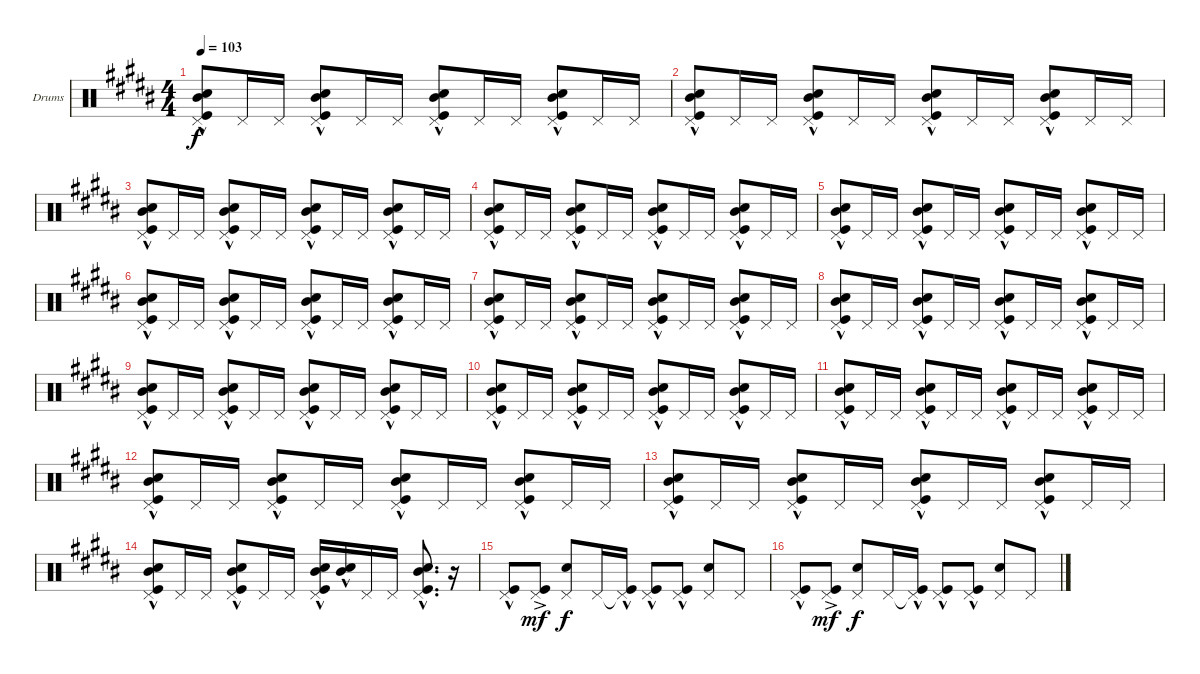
\defaultSystemsLayout 4
\bracketExtendMode groupsimilarinstruments
\firstSystemTrackNameOrientation horizontal
\otherSystemsTrackNameOrientation horizontal
\track ("Drumkit" "Drums") {instrument percussion}
\staff {score}
\articulation defaults
\ts (4 4)
\tempo 103
\clef neutral
\ks b
("Snare (hit) 2" "Mid Tom (hit)"{hac} "Pedal Hi-Hat (hit)" "Kick (hit)"{hac}).8{dy f} "Pedal Hi-Hat (hit)".16 "Pedal Hi-Hat (hit)".16 ("Snare (hit) 2" "Mid Tom (hit)"{hac} "Pedal Hi-Hat (hit)" "Kick (hit)"{hac}).8 "Pedal Hi-Hat (hit)".16 "Pedal Hi-Hat (hit)".16 ("Snare (hit) 2" "Mid Tom (hit)"{hac} "Pedal Hi-Hat (hit)" "Kick (hit)"{hac}).8 "Pedal Hi-Hat (hit)".16 "Pedal Hi-Hat (hit)".16 ("Snare (hit) 2" "Mid Tom (hit)"{hac} "Pedal Hi-Hat (hit)" "Kick (hit)"{hac}).8 "Pedal Hi-Hat (hit)".16 "Pedal Hi-Hat (hit)".16 |
("Snare (hit) 2" "Mid Tom (hit)"{hac} "Pedal Hi-Hat (hit)" "Kick (hit)"{hac}).8 "Pedal Hi-Hat (hit)".16 "Pedal Hi-Hat (hit)".16 ("Snare (hit) 2" "Mid Tom (hit)"{hac} "Pedal Hi-Hat (hit)" "Kick (hit)"{hac}).8 "Pedal Hi-Hat (hit)".16 "Pedal Hi-Hat (hit)".16 ("Snare (hit) 2" "Mid Tom (hit)"{hac} "Pedal Hi-Hat (hit)" "Kick (hit)"{hac}).8 "Pedal Hi-Hat (hit)".16 "Pedal Hi-Hat (hit)".16 ("Snare (hit) 2" "Mid Tom (hit)"{hac} "Pedal Hi-Hat (hit)" "Kick (hit)"{hac}).8 "Pedal Hi-Hat (hit)".16 "Pedal Hi-Hat (hit)".16 |
("Snare (hit) 2" "Mid Tom (hit)"{hac} "Pedal Hi-Hat (hit)" "Kick (hit)"{hac}).8 "Pedal Hi-Hat (hit)".16 "Pedal Hi-Hat (hit)".16 ("Snare (hit) 2" "Mid Tom (hit)"{hac} "Pedal Hi-Hat (hit)" "Kick (hit)"{hac}).8 "Pedal Hi-Hat (hit)".16 "Pedal Hi-Hat (hit)".16 ("Snare (hit) 2" "Mid Tom (hit)"{hac} "Pedal Hi-Hat (hit)" "Kick (hit)"{hac}).8 "Pedal Hi-Hat (hit)".16 "Pedal Hi-Hat (hit)".16 ("Snare (hit) 2" "Mid Tom (hit)"{hac} "Pedal Hi-Hat (hit)" "Kick (hit)"{hac}).8 "Pedal Hi-Hat (hit)".16 "Pedal Hi-Hat (hit)".16 |
("Snare (hit) 2" "Mid Tom (hit)"{hac} "Pedal Hi-Hat (hit)" "Kick (hit)"{hac}).8 "Pedal Hi-Hat (hit)".16 "Pedal Hi-Hat (hit)".16 ("Snare (hit) 2" "Mid Tom (hit)"{hac} "Pedal Hi-Hat (hit)" "Kick (hit)"{hac}).8 "Pedal Hi-Hat (hit)".16 "Pedal Hi-Hat (hit)".16 ("Snare (hit) 2" "Mid Tom (hit)"{hac} "Pedal Hi-Hat (hit)" "Kick (hit)"{hac}).8 "Pedal Hi-Hat (hit)".16 "Pedal Hi-Hat (hit)".16 ("Snare (hit) 2" "Mid Tom (hit)"{hac} "Pedal Hi-Hat (hit)" "Kick (hit)"{hac}).8 "Pedal Hi-Hat (hit)".16 "Pedal Hi-Hat (hit)".16 |
("Snare (hit) 2" "Mid Tom (hit)"{hac} "Pedal Hi-Hat (hit)" "Kick (hit)"{hac}).8 "Pedal Hi-Hat (hit)".16 "Pedal Hi-Hat (hit)".16 ("Snare (hit) 2" "Mid Tom (hit)"{hac} "Pedal Hi-Hat (hit)" "Kick (hit)"{hac}).8 "Pedal Hi-Hat (hit)".16 "Pedal Hi-Hat (hit)".16 ("Snare (hit) 2" "Mid Tom (hit)"{hac} "Pedal Hi-Hat (hit)" "Kick (hit)"{hac}).8 "Pedal Hi-Hat (hit)".16 "Pedal Hi-Hat (hit)".16 ("Snare (hit) 2" "Mid Tom (hit)"{hac} "Pedal Hi-Hat (hit)" "Kick (hit)"{hac}).8 "Pedal Hi-Hat (hit)".16 "Pedal Hi-Hat (hit)".16 |
("Snare (hit) 2" "Mid Tom (hit)"{hac} "Pedal Hi-Hat (hit)" "Kick (hit)"{hac}).8 "Pedal Hi-Hat (hit)".16 "Pedal Hi-Hat (hit)".16 ("Snare (hit) 2" "Mid Tom (hit)"{hac} "Pedal Hi-Hat (hit)" "Kick (hit)"{hac}).8 "Pedal Hi-Hat (hit)".16 "Pedal Hi-Hat (hit)".16 ("Snare (hit) 2" "Mid Tom (hit)"{hac} "Pedal Hi-Hat (hit)" "Kick (hit)"{hac}).8 "Pedal Hi-Hat (hit)".16 "Pedal Hi-Hat (hit)".16 ("Snare (hit) 2" "Mid Tom (hit)"{hac} "Pedal Hi-Hat (hit)" "Kick (hit)"{hac}).8 "Pedal Hi-Hat (hit)".16 "Pedal Hi-Hat (hit)".16 |
("Snare (hit) 2" "Mid Tom (hit)"{hac} "Pedal Hi-Hat (hit)" "Kick (hit)"{hac}).8 "Pedal Hi-Hat (hit)".16 "Pedal Hi-Hat (hit)".16 ("Snare (hit) 2" "Mid Tom (hit)"{hac} "Pedal Hi-Hat (hit)" "Kick (hit)"{hac}).8 "Pedal Hi-Hat (hit)".16 "Pedal Hi-Hat (hit)".16 ("Snare (hit) 2" "Mid Tom (hit)"{hac} "Pedal Hi-Hat (hit)" "Kick (hit)"{hac}).8 "Pedal Hi-Hat (hit)".16 "Pedal Hi-Hat (hit)".16 ("Snare (hit) 2" "Mid Tom (hit)"{hac} "Pedal Hi-Hat (hit)" "Kick (hit)"{hac}).8 "Pedal Hi-Hat (hit)".16 "Pedal Hi-Hat (hit)".16 |
("Snare (hit) 2" "Mid Tom (hit)"{hac} "Pedal Hi-Hat (hit)" "Kick (hit)"{hac}).8 "Pedal Hi-Hat (hit)".16 "Pedal Hi-Hat (hit)".16 ("Snare (hit) 2" "Mid Tom (hit)"{hac} "Pedal Hi-Hat (hit)" "Kick (hit)"{hac}).8 "Pedal Hi-Hat (hit)".16 "Pedal Hi-Hat (hit)".16 ("Snare (hit) 2" "Mid Tom (hit)"{hac} "Pedal Hi-Hat (hit)" "Kick (hit)"{hac}).8 "Pedal Hi-Hat (hit)".16 "Pedal Hi-Hat (hit)".16 ("Snare (hit) 2" "Mid Tom (hit)"{hac} "Pedal Hi-Hat (hit)" "Kick (hit)"{hac}).8 "Pedal Hi-Hat (hit)".16 "Pedal Hi-Hat (hit)".16 |
("Snare (hit) 2" "Mid Tom (hit)"{hac} "Pedal Hi-Hat (hit)" "Kick (hit)"{hac}).8 "Pedal Hi-Hat (hit)".16 "Pedal Hi-Hat (hit)".16 ("Snare (hit) 2" "Mid Tom (hit)"{hac} "Pedal Hi-Hat (hit)" "Kick (hit)"{hac}).8 "Pedal Hi-Hat (hit)".16 "Pedal Hi-Hat (hit)".16 ("Snare (hit) 2" "Mid Tom (hit)"{hac} "Pedal Hi-Hat (hit)" "Kick (hit)"{hac}).8 "Pedal Hi-Hat (hit)".16 "Pedal Hi-Hat (hit)".16 ("Snare (hit) 2" "Mid Tom (hit)"{hac} "Pedal Hi-Hat (hit)" "Kick (hit)"{hac}).8 "Pedal Hi-Hat (hit)".16 "Pedal Hi-Hat (hit)".16 |
("Snare (hit) 2" "Mid Tom (hit)"{hac} "Pedal Hi-Hat (hit)" "Kick (hit)"{hac}).8 "Pedal Hi-Hat (hit)".16 "Pedal Hi-Hat (hit)".16 ("Snare (hit) 2" "Mid Tom (hit)"{hac} "Pedal Hi-Hat (hit)" "Kick (hit)"{hac}).8 "Pedal Hi-Hat (hit)".16 "Pedal Hi-Hat (hit)".16 ("Snare (hit) 2" "Mid Tom (hit)"{hac} "Pedal Hi-Hat (hit)" "Kick (hit)"{hac}).8 "Pedal Hi-Hat (hit)".16 "Pedal Hi-Hat (hit)".16 ("Snare (hit) 2" "Mid Tom (hit)"{hac} "Pedal Hi-Hat (hit)" "Kick (hit)"{hac}).8 "Pedal Hi-Hat (hit)".16 "Pedal Hi-Hat (hit)".16 |
("Snare (hit) 2" "Mid Tom (hit)"{hac} "Pedal Hi-Hat (hit)" "Kick (hit)"{hac}).8 "Pedal Hi-Hat (hit)".16 "Pedal Hi-Hat (hit)".16 ("Snare (hit) 2" "Mid Tom (hit)"{hac} "Pedal Hi-Hat (hit)" "Kick (hit)"{hac}).8 "Pedal Hi-Hat (hit)".16 "Pedal Hi-Hat (hit)".16 ("Snare (hit) 2" "Mid Tom (hit)"{hac} "Pedal Hi-Hat (hit)" "Kick (hit)"{hac}).8 "Pedal Hi-Hat (hit)".16 "Pedal Hi-Hat (hit)".16 ("Snare (hit) 2" "Mid Tom (hit)"{hac} "Pedal Hi-Hat (hit)" "Kick (hit)"{hac}).8 "Pedal Hi-Hat (hit)".16 "Pedal Hi-Hat (hit)".16 |
("Snare (hit) 2" "Mid Tom (hit)"{hac} "Pedal Hi-Hat (hit)" "Kick (hit)"{hac}).8 "Pedal Hi-Hat (hit)".16 "Pedal Hi-Hat (hit)".16 ("Snare (hit) 2" "Mid Tom (hit)"{hac} "Pedal Hi-Hat (hit)" "Kick (hit)"{hac}).8 "Pedal Hi-Hat (hit)".16 "Pedal Hi-Hat (hit)".16 ("Snare (hit) 2" "Mid Tom (hit)"{hac} "Pedal Hi-Hat (hit)" "Kick (hit)"{hac}).8 "Pedal Hi-Hat (hit)".16 "Pedal Hi-Hat (hit)".16 ("Snare (hit) 2" "Mid Tom (hit)"{hac} "Pedal Hi-Hat (hit)" "Kick (hit)"{hac}).8 "Pedal Hi-Hat (hit)".16 "Pedal Hi-Hat (hit)".16 |
("Snare (hit) 2" "Mid Tom (hit)"{hac} "Pedal Hi-Hat (hit)" "Kick (hit)"{hac}).8 "Pedal Hi-Hat (hit)".16 "Pedal Hi-Hat (hit)".16 ("Snare (hit) 2" "Mid Tom (hit)"{hac} "Pedal Hi-Hat (hit)" "Kick (hit)"{hac}).8 "Pedal Hi-Hat (hit)".16 "Pedal Hi-Hat (hit)".16 ("Snare (hit) 2" "Mid Tom (hit)"{hac} "Pedal Hi-Hat (hit)" "Kick (hit)"{hac}).8 "Pedal Hi-Hat (hit)".16 "Pedal Hi-Hat (hit)".16 ("Snare (hit) 2" "Mid Tom (hit)"{hac} "Pedal Hi-Hat (hit)" "Kick (hit)"{hac}).8 "Pedal Hi-Hat (hit)".16 "Pedal Hi-Hat (hit)".16 |
("Snare (hit) 2" "Mid Tom (hit)"{hac} "Pedal Hi-Hat (hit)" "Kick (hit)"{hac}).8 "Pedal Hi-Hat (hit)".16 "Pedal Hi-Hat (hit)".16 ("Snare (hit) 2" "Mid Tom (hit)"{hac} "Pedal Hi-Hat (hit)" "Kick (hit)"{hac}).8 "Pedal Hi-Hat (hit)".16 "Pedal Hi-Hat (hit)".16 ("Pedal Hi-Hat (hit)" "Kick (hit)"{hac} "Snare (hit) 2" "Mid Tom (hit)"{hac}).16 ("Mid Tom (hit)"{hac} "Snare (hit) 2").16 "Pedal Hi-Hat (hit)".16 "Pedal Hi-Hat (hit)".16 ("Pedal Hi-Hat (hit)" "Kick (hit)"{hac} "Mid Tom (hit)"{hac} "Snare (hit) 2").8{d} r.16 |
("Pedal Hi-Hat (hit)" "Kick (hit)"{hac}).8 ("Kick (hit)"{ac} "Pedal Hi-Hat (hit)").8{dy mf} ("Pedal Hi-Hat (hit)" "Snare (hit) 2").8{dy f} "Pedal Hi-Hat (hit)".16 ("Pedal Hi-Hat (hit)"{t} "Kick (hit)"{hac}).16 ("Kick (hit)"{hac} "Pedal Hi-Hat (hit)").8 ("Pedal Hi-Hat (hit)" "Kick (hit)"{hac}).8 ("Pedal Hi-Hat (hit)" "Snare (hit) 2").8 "Pedal Hi-Hat (hit)".8 |
("Pedal Hi-Hat (hit)" "Kick (hit)"{hac}).8 ("Kick (hit)"{ac} "Pedal Hi-Hat (hit)").8{dy mf} ("Pedal Hi-Hat (hit)" "Snare (hit) 2").8{dy f} "Pedal Hi-Hat (hit)".16 ("Pedal Hi-Hat (hit)"{t} "Kick (hit)"{hac}).16 ("Kick (hit)"{hac} "Pedal Hi-Hat (hit)").8 ("Pedal Hi-Hat (hit)" "Kick (hit)"{hac}).8 ("Pedal Hi-Hat (hit)" "Snare (hit) 2").8 "Pedal Hi-Hat (hit)".8
